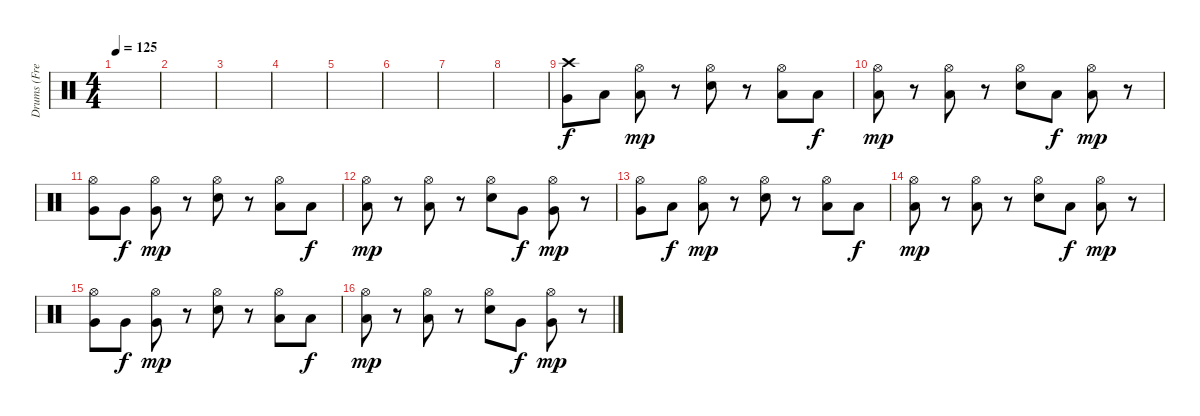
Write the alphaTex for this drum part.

\track ("Drums (Fredrik Andersson)" "Drums (Fre") {instrument percussion}
\staff {score}
\articulation defaults
\ts (4 4)
\tempo 125
\clef neutral
\ks c
|
|
|
|
|
|
|
|
("Crash high (hit)" "Very Low Tom (hit)").8 "Low Tom (hit)".8 ("Hi-Hat (open)" "Low Tom (hit)").8{dy mp} r.8 ("Hi-Hat (open)" "Snare (hit) 2").8 r.8 ("Hi-Hat (open)" "Low Floor Tom (hit)").8 "Low Floor Tom (hit)".8{dy f} |
("Hi-Hat (open)" "Low Floor Tom (hit)").8{dy mp} r.8 ("Hi-Hat (open)" "Low Floor Tom (hit)").8 r.8 ("Hi-Hat (open)" "Snare (hit) 2").8 "Low Tom (hit)".8{dy f} ("Hi-Hat (open)" "Low Tom (hit)").8{dy mp} r.8 |
("Hi-Hat (open)" "Very Low Tom (hit)").8 "Very Low Tom (hit)".8{dy f} ("Hi-Hat (open)" "Very Low Tom (hit)").8{dy mp} r.8 ("Hi-Hat (open)" "Snare (hit) 2").8 r.8 ("Hi-Hat (open)" "Low Floor Tom (hit)").8 "Low Floor Tom (hit)".8{dy f} |
("Hi-Hat (open)" "Low Floor Tom (hit)").8{dy mp} r.8 ("Hi-Hat (open)" "Low Floor Tom (hit)").8 r.8 ("Hi-Hat (open)" "Snare (hit) 2").8 "Very Low Tom (hit)".8{dy f} ("Hi-Hat (open)" "Very Low Tom (hit)").8{dy mp} r.8 |
("Hi-Hat (open)" "Very Low Tom (hit)").8 "Low Tom (hit)".8{dy f} ("Hi-Hat (open)" "Low Tom (hit)").8{dy mp} r.8 ("Hi-Hat (open)" "Snare (hit) 2").8 r.8 ("Hi-Hat (open)" "Low Floor Tom (hit)").8 "Low Floor Tom (hit)".8{dy f} |
("Hi-Hat (open)" "Low Floor Tom (hit)").8{dy mp} r.8 ("Hi-Hat (open)" "Low Floor Tom (hit)").8 r.8 ("Hi-Hat (open)" "Snare (hit) 2").8 "Low Tom (hit)".8{dy f} ("Hi-Hat (open)" "Low Tom (hit)").8{dy mp} r.8 |
("Hi-Hat (open)" "Very Low Tom (hit)").8 "Very Low Tom (hit)".8{dy f} ("Hi-Hat (open)" "Very Low Tom (hit)").8{dy mp} r.8 ("Hi-Hat (open)" "Snare (hit) 2").8 r.8 ("Hi-Hat (open)" "Low Floor Tom (hit)").8 "Low Floor Tom (hit)".8{dy f} |
("Hi-Hat (open)" "Low Floor Tom (hit)").8{dy mp} r.8 ("Hi-Hat (open)" "Low Floor Tom (hit)").8 r.8 ("Hi-Hat (open)" "Snare (hit) 2").8 "Very Low Tom (hit)".8{dy f} ("Hi-Hat (open)" "Very Low Tom (hit)").8{dy mp} r.8
